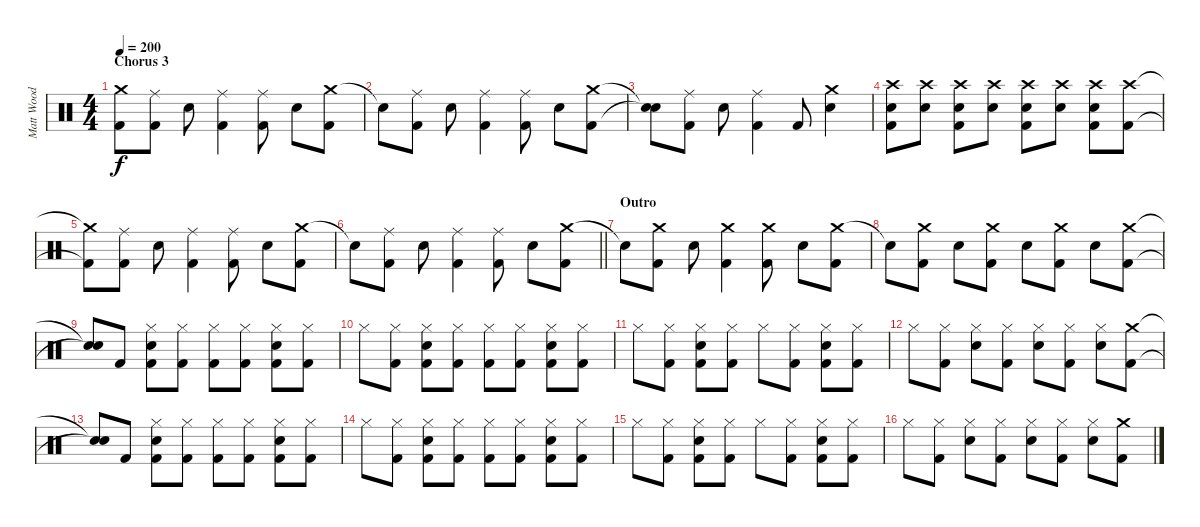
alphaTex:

\track ("Matt Wood" "Matt Wood") {instrument percussion}
\staff {score}
\articulation defaults
\ts (4 4)
\section ("" "Chorus 3")
\tempo 200
\clef neutral
\ks c
("Crash medium (hit)"{t} "Kick (hit) 2"{t}).8{dy f} ("Ride (middle)" "Kick (hit) 2").8 "Snare (hit) 2".8 ("Ride (middle)" "Kick (hit) 2").4 ("Ride (middle)" "Kick (hit) 2").8 "Snare (hit) 2".8 ("Crash medium (hit)" "Kick (hit) 2").8 |
"Snare (hit)"{t}.8 ("Ride (middle)" "Kick (hit) 2").8 "Snare (hit) 2".8 ("Ride (middle)" "Kick (hit) 2").4 ("Ride (middle)" "Kick (hit) 2").8 "Snare (hit) 2".8 ("Crash medium (hit)" "Kick (hit) 2").8 |
("Snare (hit)"{t} "Snare (hit)"{t}).8 ("Ride (middle)" "Kick (hit) 2").8 "Snare (hit) 2".8 ("Ride (middle)" "Kick (hit) 2").4 "Kick (hit) 2".8 ("Crash medium (hit)" "Snare (hit) 2").4 |
("Crash high (hit)" "Snare (hit) 2" "Kick (hit) 2").8 ("Crash high (hit)" "Snare (hit) 2").8 ("Crash high (hit)" "Snare (hit) 2" "Kick (hit) 2").8 ("Crash high (hit)" "Snare (hit) 2").8 ("Crash high (hit)" "Snare (hit) 2" "Kick (hit) 2").8 ("Crash high (hit)" "Snare (hit) 2").8 ("Crash high (hit)" "Snare (hit) 2" "Kick (hit) 2").8 ("Crash high (hit)" "Kick (hit) 2").8 |
("Crash medium (hit)"{t} "Kick (hit) 2"{t}).8 ("Ride (middle)" "Kick (hit) 2").8 "Snare (hit) 2".8 ("Ride (middle)" "Kick (hit) 2").4 ("Ride (middle)" "Kick (hit) 2").8 "Snare (hit) 2".8 ("Crash medium (hit)" "Kick (hit) 2").8 |
\barLineRight lightlight "Snare (hit)"{t}.8
("Ride (middle)" "Kick (hit) 2").8 "Snare (hit) 2".8 ("Ride (middle)" "Kick (hit) 2").4 ("Ride (middle)" "Kick (hit) 2").8 "Snare (hit) 2".8 ("Crash medium (hit)" "Kick (hit) 2").8 |
\section ("" "Outro")
"Snare (hit)"{t}.8 ("Crash medium (hit)" "Kick (hit) 2").8 "Snare (hit) 2".8 ("Crash medium (hit)" "Kick (hit) 2").4 ("Crash medium (hit)" "Kick (hit) 2").8 "Snare (hit) 2".8 ("Crash medium (hit)" "Kick (hit) 2").8 |
"Snare (hit)"{t}.8 ("Crash medium (hit)" "Kick (hit) 2").8 "Snare (hit) 2".8 ("Crash medium (hit)" "Kick (hit) 2").8 "Snare (hit) 2".8 ("Crash medium (hit)" "Kick (hit) 2").8 "Snare (hit) 2".8 ("Crash medium (hit)" "Kick (hit) 2").8 |
("Snare (hit)"{t} "Snare (hit)"{t}).8 "Kick (hit) 2".8 ("Hi-Hat (closed)" "Snare (hit) 2" "Kick (hit) 2").8 ("Hi-Hat (closed)" "Kick (hit) 2").8 ("Hi-Hat (closed)" "Kick (hit) 2").8 ("Hi-Hat (closed)" "Kick (hit) 2").8 ("Hi-Hat (closed)" "Snare (hit) 2" "Kick (hit) 2").8 ("Hi-Hat (closed)" "Kick (hit) 2").8 |
"Hi-Hat (closed)".8 ("Hi-Hat (closed)" "Kick (hit) 2").8 ("Hi-Hat (closed)" "Snare (hit) 2" "Kick (hit) 2").8 ("Hi-Hat (closed)" "Kick (hit) 2").8 ("Hi-Hat (closed)" "Kick (hit) 2").8 ("Hi-Hat (closed)" "Kick (hit) 2").8 ("Hi-Hat (closed)" "Snare (hit) 2" "Kick (hit) 2").8 ("Hi-Hat (closed)" "Kick (hit) 2").8 |
"Hi-Hat (closed)".8 ("Hi-Hat (closed)" "Kick (hit) 2").8 ("Hi-Hat (closed)" "Snare (hit) 2" "Kick (hit) 2").8 ("Hi-Hat (closed)" "Kick (hit) 2").8 "Hi-Hat (closed)".8 ("Hi-Hat (closed)" "Kick (hit) 2").8 ("Hi-Hat (closed)" "Snare (hit) 2" "Kick (hit) 2").8 ("Hi-Hat (closed)" "Kick (hit) 2").8 |
"Hi-Hat (closed)".8 ("Hi-Hat (closed)" "Kick (hit) 2").8 ("Hi-Hat (closed)" "Snare (hit) 2").8 ("Hi-Hat (closed)" "Kick (hit) 2").8 ("Hi-Hat (closed)" "Snare (hit) 2").8 ("Hi-Hat (closed)" "Kick (hit) 2").8 ("Hi-Hat (closed)" "Snare (hit) 2").8 ("Crash medium (hit)" "Kick (hit) 2").8 |
("Snare (hit)"{t} "Snare (hit)"{t}).8 "Kick (hit) 2".8 ("Hi-Hat (closed)" "Snare (hit) 2" "Kick (hit) 2").8 ("Hi-Hat (closed)" "Kick (hit) 2").8 ("Hi-Hat (closed)" "Kick (hit) 2").8 ("Hi-Hat (closed)" "Kick (hit) 2").8 ("Hi-Hat (closed)" "Snare (hit) 2" "Kick (hit) 2").8 ("Hi-Hat (closed)" "Kick (hit) 2").8 |
"Hi-Hat (closed)".8 ("Hi-Hat (closed)" "Kick (hit) 2").8 ("Hi-Hat (closed)" "Snare (hit) 2" "Kick (hit) 2").8 ("Hi-Hat (closed)" "Kick (hit) 2").8 ("Hi-Hat (closed)" "Kick (hit) 2").8 ("Hi-Hat (closed)" "Kick (hit) 2").8 ("Hi-Hat (closed)" "Snare (hit) 2" "Kick (hit) 2").8 ("Hi-Hat (closed)" "Kick (hit) 2").8 |
"Hi-Hat (closed)".8 ("Hi-Hat (closed)" "Kick (hit) 2").8 ("Hi-Hat (closed)" "Snare (hit) 2" "Kick (hit) 2").8 ("Hi-Hat (closed)" "Kick (hit) 2").8 "Hi-Hat (closed)".8 ("Hi-Hat (closed)" "Kick (hit) 2").8 ("Hi-Hat (closed)" "Snare (hit) 2" "Kick (hit) 2").8 ("Hi-Hat (closed)" "Kick (hit) 2").8 |
"Hi-Hat (closed)".8 ("Hi-Hat (closed)" "Kick (hit) 2").8 ("Hi-Hat (closed)" "Snare (hit) 2").8 ("Hi-Hat (closed)" "Kick (hit) 2").8 ("Hi-Hat (closed)" "Snare (hit) 2").8 ("Hi-Hat (closed)" "Kick (hit) 2").8 ("Hi-Hat (closed)" "Snare (hit) 2").8 ("Crash medium (hit)" "Kick (hit) 2").8
